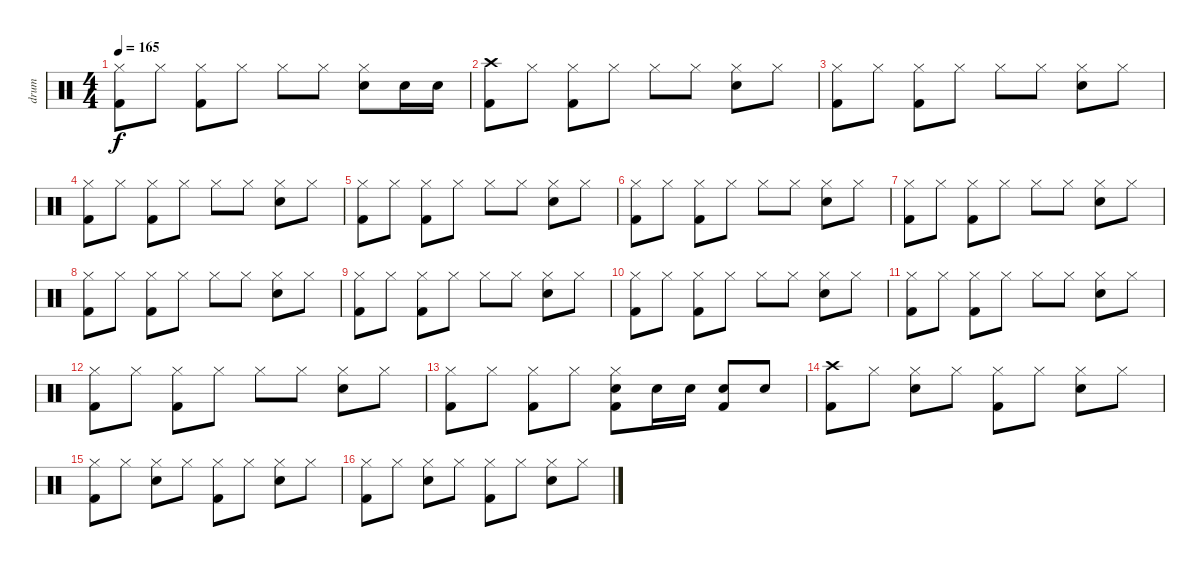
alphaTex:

\track ("drum" "drum") {instrument percussion}
\staff {score}
\articulation defaults
\ts (4 4)
\tempo 165
\clef neutral
\ks c
("Hi-Hat (closed)" "Kick (hit) 2").8{dy f} "Hi-Hat (closed)".8 ("Hi-Hat (closed)" "Kick (hit) 2").8 "Hi-Hat (closed)".8 "Hi-Hat (closed)".8 "Hi-Hat (closed)".8 ("Hi-Hat (closed)" "Snare (hit) 2").8 "Snare (hit) 2".16 "Snare (hit) 2".16 |
("Crash high (hit)" "Kick (hit) 2").8 "Hi-Hat (closed)".8 ("Hi-Hat (closed)" "Kick (hit) 2").8 "Hi-Hat (closed)".8 "Hi-Hat (closed)".8 "Hi-Hat (closed)".8 ("Hi-Hat (closed)" "Snare (hit) 2").8 "Hi-Hat (closed)".8 |
("Hi-Hat (closed)" "Kick (hit) 2").8 "Hi-Hat (closed)".8 ("Hi-Hat (closed)" "Kick (hit) 2").8 "Hi-Hat (closed)".8 "Hi-Hat (closed)".8 "Hi-Hat (closed)".8 ("Hi-Hat (closed)" "Snare (hit) 2").8 "Hi-Hat (closed)".8 |
("Hi-Hat (closed)" "Kick (hit) 2").8 "Hi-Hat (closed)".8 ("Hi-Hat (closed)" "Kick (hit) 2").8 "Hi-Hat (closed)".8 "Hi-Hat (closed)".8 "Hi-Hat (closed)".8 ("Hi-Hat (closed)" "Snare (hit) 2").8 "Hi-Hat (closed)".8 |
("Hi-Hat (closed)" "Kick (hit) 2").8 "Hi-Hat (closed)".8 ("Hi-Hat (closed)" "Kick (hit) 2").8 "Hi-Hat (closed)".8 "Hi-Hat (closed)".8 "Hi-Hat (closed)".8 ("Hi-Hat (closed)" "Snare (hit) 2").8 "Hi-Hat (closed)".8 |
("Hi-Hat (closed)" "Kick (hit) 2").8 "Hi-Hat (closed)".8 ("Hi-Hat (closed)" "Kick (hit) 2").8 "Hi-Hat (closed)".8 "Hi-Hat (closed)".8 "Hi-Hat (closed)".8 ("Hi-Hat (closed)" "Snare (hit) 2").8 "Hi-Hat (closed)".8 |
("Hi-Hat (closed)" "Kick (hit) 2").8 "Hi-Hat (closed)".8 ("Hi-Hat (closed)" "Kick (hit) 2").8 "Hi-Hat (closed)".8 "Hi-Hat (closed)".8 "Hi-Hat (closed)".8 ("Hi-Hat (closed)" "Snare (hit) 2").8 "Hi-Hat (closed)".8 |
("Hi-Hat (closed)" "Kick (hit) 2").8 "Hi-Hat (closed)".8 ("Hi-Hat (closed)" "Kick (hit) 2").8 "Hi-Hat (closed)".8 "Hi-Hat (closed)".8 "Hi-Hat (closed)".8 ("Hi-Hat (closed)" "Snare (hit) 2").8 "Hi-Hat (closed)".8 |
("Hi-Hat (closed)" "Kick (hit) 2").8 "Hi-Hat (closed)".8 ("Hi-Hat (closed)" "Kick (hit) 2").8 "Hi-Hat (closed)".8 "Hi-Hat (closed)".8 "Hi-Hat (closed)".8 ("Hi-Hat (closed)" "Snare (hit) 2").8 "Hi-Hat (closed)".8 |
("Hi-Hat (closed)" "Kick (hit) 2").8 "Hi-Hat (closed)".8 ("Hi-Hat (closed)" "Kick (hit) 2").8 "Hi-Hat (closed)".8 "Hi-Hat (closed)".8 "Hi-Hat (closed)".8 ("Hi-Hat (closed)" "Snare (hit) 2").8 "Hi-Hat (closed)".8 |
("Hi-Hat (closed)" "Kick (hit) 2").8 "Hi-Hat (closed)".8 ("Hi-Hat (closed)" "Kick (hit) 2").8 "Hi-Hat (closed)".8 "Hi-Hat (closed)".8 "Hi-Hat (closed)".8 ("Hi-Hat (closed)" "Snare (hit) 2").8 "Hi-Hat (closed)".8 |
("Hi-Hat (closed)" "Kick (hit) 2").8 "Hi-Hat (closed)".8 ("Hi-Hat (closed)" "Kick (hit) 2").8 "Hi-Hat (closed)".8 "Hi-Hat (closed)".8 "Hi-Hat (closed)".8 ("Hi-Hat (closed)" "Snare (hit) 2").8 "Hi-Hat (closed)".8 |
("Hi-Hat (closed)" "Kick (hit) 2").8 "Hi-Hat (closed)".8 ("Hi-Hat (closed)" "Kick (hit) 2").8 "Hi-Hat (closed)".8 ("Hi-Hat (closed)" "Snare (hit) 2" "Kick (hit) 2").8 "Snare (hit) 2".16 "Snare (hit) 2".16 ("Snare (hit) 2" "Kick (hit) 2").8 "Snare (hit) 2".8 |
("Crash high (hit)" "Kick (hit) 2").8 "Hi-Hat (closed)".8 ("Hi-Hat (closed)" "Snare (hit) 2").8 "Hi-Hat (closed)".8 ("Hi-Hat (closed)" "Kick (hit) 2").8 "Hi-Hat (closed)".8 ("Hi-Hat (closed)" "Snare (hit) 2").8 "Hi-Hat (closed)".8 |
("Hi-Hat (closed)" "Kick (hit) 2").8 "Hi-Hat (closed)".8 ("Hi-Hat (closed)" "Snare (hit) 2").8 "Hi-Hat (closed)".8 ("Hi-Hat (closed)" "Kick (hit) 2").8 "Hi-Hat (closed)".8 ("Hi-Hat (closed)" "Snare (hit) 2").8 "Hi-Hat (closed)".8 |
("Hi-Hat (closed)" "Kick (hit) 2").8 "Hi-Hat (closed)".8 ("Hi-Hat (closed)" "Snare (hit) 2").8 "Hi-Hat (closed)".8 ("Hi-Hat (closed)" "Kick (hit) 2").8 "Hi-Hat (closed)".8 ("Hi-Hat (closed)" "Snare (hit) 2").8 "Hi-Hat (closed)".8
